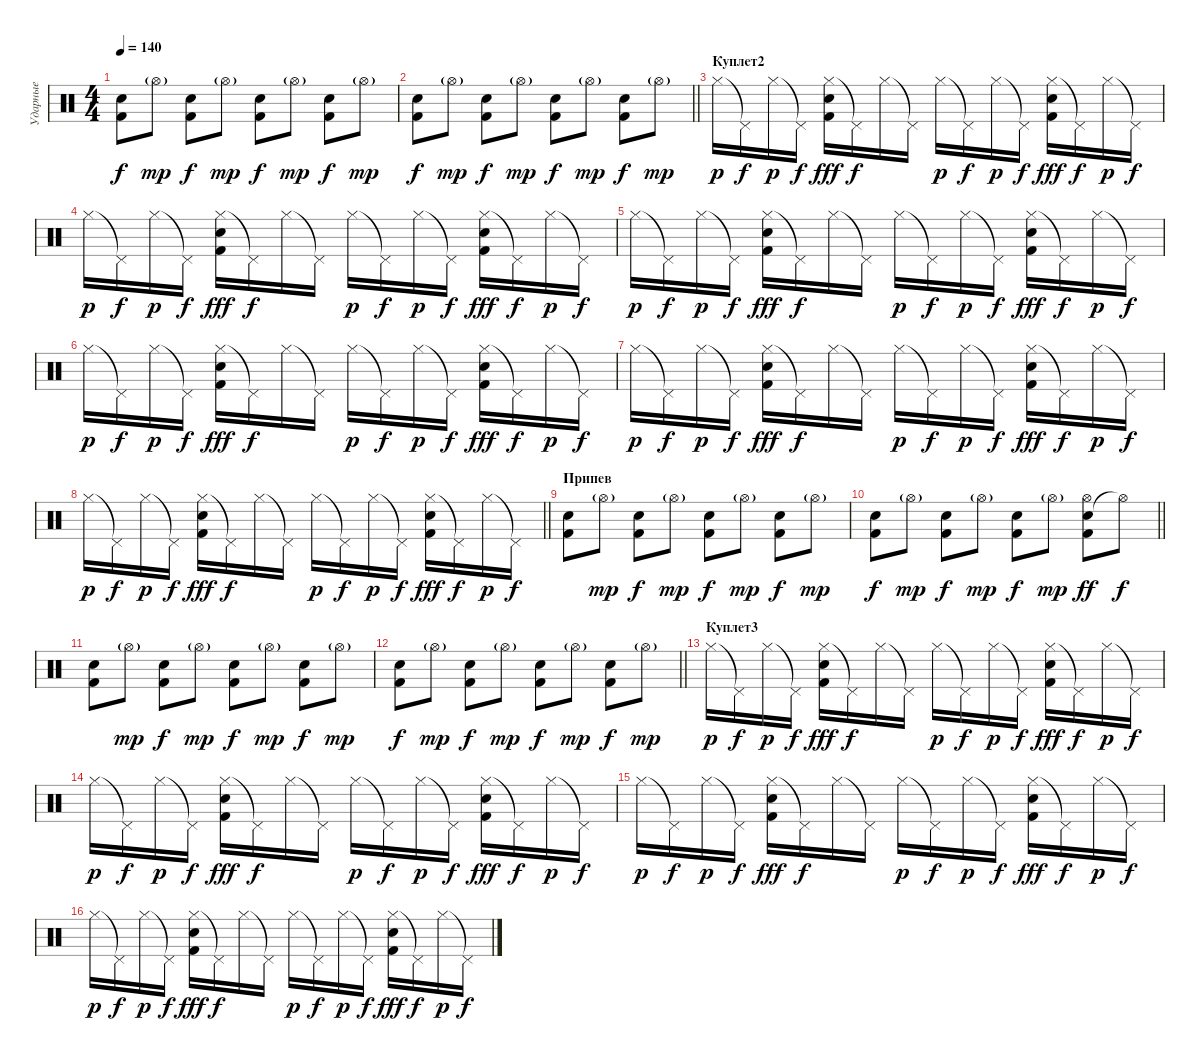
\track ("Ударные" "Ударные") {instrument percussion}
\staff {score}
\articulation defaults
\ts (4 4)
\tempo 140
\clef neutral
\ks c
("Snare (hit) 2" "Kick (hit) 2").8{dy f} "Hi-Hat (open)"{g}.8{dy mp} ("Snare (hit) 2" "Kick (hit) 2").8{dy f} "Hi-Hat (open)"{g}.8{dy mp} ("Snare (hit) 2" "Kick (hit) 2").8{dy f} "Hi-Hat (open)"{g}.8{dy mp} ("Snare (hit) 2" "Kick (hit) 2").8{dy f} "Hi-Hat (open)"{g}.8{dy mp} |
\barLineRight lightlight
("Snare (hit) 2" "Kick (hit) 2").8{dy f} "Hi-Hat (open)"{g}.8{dy mp} ("Snare (hit) 2" "Kick (hit) 2").8{dy f} "Hi-Hat (open)"{g}.8{dy mp} ("Snare (hit) 2" "Kick (hit) 2").8{dy f} "Hi-Hat (open)"{g}.8{dy mp} ("Snare (hit) 2" "Kick (hit) 2").8{dy f} "Hi-Hat (open)"{g}.8{dy mp} |
\section ("" "Куплет2")
"Hi-Hat (closed)".16{dy p} "Pedal Hi-Hat (hit)"{t}.16{dy f} "Hi-Hat (closed)".16{dy p} "Pedal Hi-Hat (hit)"{t}.16{dy f} ("Hi-Hat (closed)" "Electric Snare (hit)" "Kick (hit) 2").16{dy fff} "Pedal Hi-Hat (hit)"{t}.16{dy f} "Hi-Hat (closed)".16 "Pedal Hi-Hat (hit)"{t}.16 "Hi-Hat (closed)".16{dy p} "Pedal Hi-Hat (hit)"{t}.16{dy f} "Hi-Hat (closed)".16{dy p} "Pedal Hi-Hat (hit)"{t}.16{dy f} ("Hi-Hat (closed)" "Electric Snare (hit)" "Kick (hit) 2").16{dy fff} "Pedal Hi-Hat (hit)"{t}.16{dy f} "Hi-Hat (closed)".16{dy p} "Pedal Hi-Hat (hit)"{t}.16{dy f} |
"Hi-Hat (closed)".16{dy p} "Pedal Hi-Hat (hit)"{t}.16{dy f} "Hi-Hat (closed)".16{dy p} "Pedal Hi-Hat (hit)"{t}.16{dy f} ("Hi-Hat (closed)" "Electric Snare (hit)" "Kick (hit) 2").16{dy fff} "Pedal Hi-Hat (hit)"{t}.16{dy f} "Hi-Hat (closed)".16 "Pedal Hi-Hat (hit)"{t}.16 "Hi-Hat (closed)".16{dy p} "Pedal Hi-Hat (hit)"{t}.16{dy f} "Hi-Hat (closed)".16{dy p} "Pedal Hi-Hat (hit)"{t}.16{dy f} ("Hi-Hat (closed)" "Electric Snare (hit)" "Kick (hit) 2").16{dy fff} "Pedal Hi-Hat (hit)"{t}.16{dy f} "Hi-Hat (closed)".16{dy p} "Pedal Hi-Hat (hit)"{t}.16{dy f} |
"Hi-Hat (closed)".16{dy p} "Pedal Hi-Hat (hit)"{t}.16{dy f} "Hi-Hat (closed)".16{dy p} "Pedal Hi-Hat (hit)"{t}.16{dy f} ("Hi-Hat (closed)" "Electric Snare (hit)" "Kick (hit) 2").16{dy fff} "Pedal Hi-Hat (hit)"{t}.16{dy f} "Hi-Hat (closed)".16 "Pedal Hi-Hat (hit)"{t}.16 "Hi-Hat (closed)".16{dy p} "Pedal Hi-Hat (hit)"{t}.16{dy f} "Hi-Hat (closed)".16{dy p} "Pedal Hi-Hat (hit)"{t}.16{dy f} ("Hi-Hat (closed)" "Electric Snare (hit)" "Kick (hit) 2").16{dy fff} "Pedal Hi-Hat (hit)"{t}.16{dy f} "Hi-Hat (closed)".16{dy p} "Pedal Hi-Hat (hit)"{t}.16{dy f} |
"Hi-Hat (closed)".16{dy p} "Pedal Hi-Hat (hit)"{t}.16{dy f} "Hi-Hat (closed)".16{dy p} "Pedal Hi-Hat (hit)"{t}.16{dy f} ("Hi-Hat (closed)" "Electric Snare (hit)" "Kick (hit) 2").16{dy fff} "Pedal Hi-Hat (hit)"{t}.16{dy f} "Hi-Hat (closed)".16 "Pedal Hi-Hat (hit)"{t}.16 "Hi-Hat (closed)".16{dy p} "Pedal Hi-Hat (hit)"{t}.16{dy f} "Hi-Hat (closed)".16{dy p} "Pedal Hi-Hat (hit)"{t}.16{dy f} ("Hi-Hat (closed)" "Electric Snare (hit)" "Kick (hit) 2").16{dy fff} "Pedal Hi-Hat (hit)"{t}.16{dy f} "Hi-Hat (closed)".16{dy p} "Pedal Hi-Hat (hit)"{t}.16{dy f} |
"Hi-Hat (closed)".16{dy p} "Pedal Hi-Hat (hit)"{t}.16{dy f} "Hi-Hat (closed)".16{dy p} "Pedal Hi-Hat (hit)"{t}.16{dy f} ("Hi-Hat (closed)" "Electric Snare (hit)" "Kick (hit) 2").16{dy fff} "Pedal Hi-Hat (hit)"{t}.16{dy f} "Hi-Hat (closed)".16 "Pedal Hi-Hat (hit)"{t}.16 "Hi-Hat (closed)".16{dy p} "Pedal Hi-Hat (hit)"{t}.16{dy f} "Hi-Hat (closed)".16{dy p} "Pedal Hi-Hat (hit)"{t}.16{dy f} ("Hi-Hat (closed)" "Electric Snare (hit)" "Kick (hit) 2").16{dy fff} "Pedal Hi-Hat (hit)"{t}.16{dy f} "Hi-Hat (closed)".16{dy p} "Pedal Hi-Hat (hit)"{t}.16{dy f} |
\barLineRight lightlight "Hi-Hat (closed)".16{dy p} "Pedal Hi-Hat (hit)"{t}.16{dy f} "Hi-Hat (closed)".16{dy p} "Pedal Hi-Hat (hit)"{t}.16{dy f}
("Hi-Hat (closed)" "Electric Snare (hit)" "Kick (hit) 2").16{dy fff} "Pedal Hi-Hat (hit)"{t}.16{dy f} "Hi-Hat (closed)".16 "Pedal Hi-Hat (hit)"{t}.16 "Hi-Hat (closed)".16{dy p} "Pedal Hi-Hat (hit)"{t}.16{dy f} "Hi-Hat (closed)".16{dy p} "Pedal Hi-Hat (hit)"{t}.16{dy f} ("Hi-Hat (closed)" "Electric Snare (hit)" "Kick (hit) 2").16{dy fff} "Pedal Hi-Hat (hit)"{t}.16{dy f} "Hi-Hat (closed)".16{dy p} "Pedal Hi-Hat (hit)"{t}.16{dy f} |
\section ("" "Припев")
("Snare (hit) 2" "Kick (hit) 2").8 "Hi-Hat (open)"{g}.8{dy mp} ("Snare (hit) 2" "Kick (hit) 2").8{dy f} "Hi-Hat (open)"{g}.8{dy mp} ("Snare (hit) 2" "Kick (hit) 2").8{dy f} "Hi-Hat (open)"{g}.8{dy mp} ("Snare (hit) 2" "Kick (hit) 2").8{dy f} "Hi-Hat (open)"{g}.8{dy mp} |
\barLineRight lightlight
("Snare (hit) 2" "Kick (hit) 2").8{dy f} "Hi-Hat (open)"{g}.8{dy mp} ("Snare (hit) 2" "Kick (hit) 2").8{dy f} "Hi-Hat (open)"{g}.8{dy mp} ("Snare (hit) 2" "Kick (hit) 2").8{dy f} "Hi-Hat (open)"{g}.8{dy mp} ("Snare (hit) 2" "Hi-Hat (open)" "Kick (hit) 2").8{dy ff} "Hi-Hat (open)"{t}.8{dy f} |
("Snare (hit) 2" "Kick (hit) 2").8 "Hi-Hat (open)"{g}.8{dy mp} ("Snare (hit) 2" "Kick (hit) 2").8{dy f} "Hi-Hat (open)"{g}.8{dy mp} ("Snare (hit) 2" "Kick (hit) 2").8{dy f} "Hi-Hat (open)"{g}.8{dy mp} ("Snare (hit) 2" "Kick (hit) 2").8{dy f} "Hi-Hat (open)"{g}.8{dy mp} |
\barLineRight lightlight
("Snare (hit) 2" "Kick (hit) 2").8{dy f} "Hi-Hat (open)"{g}.8{dy mp} ("Snare (hit) 2" "Kick (hit) 2").8{dy f} "Hi-Hat (open)"{g}.8{dy mp} ("Snare (hit) 2" "Kick (hit) 2").8{dy f} "Hi-Hat (open)"{g}.8{dy mp} ("Snare (hit) 2" "Kick (hit) 2").8{dy f} "Hi-Hat (open)"{g}.8{dy mp} |
\section ("" "Куплет3")
"Hi-Hat (closed)".16{dy p} "Pedal Hi-Hat (hit)"{t}.16{dy f} "Hi-Hat (closed)".16{dy p} "Pedal Hi-Hat (hit)"{t}.16{dy f} ("Hi-Hat (closed)" "Electric Snare (hit)" "Kick (hit) 2").16{dy fff} "Pedal Hi-Hat (hit)"{t}.16{dy f} "Hi-Hat (closed)".16 "Pedal Hi-Hat (hit)"{t}.16 "Hi-Hat (closed)".16{dy p} "Pedal Hi-Hat (hit)"{t}.16{dy f} "Hi-Hat (closed)".16{dy p} "Pedal Hi-Hat (hit)"{t}.16{dy f} ("Hi-Hat (closed)" "Electric Snare (hit)" "Kick (hit) 2").16{dy fff} "Pedal Hi-Hat (hit)"{t}.16{dy f} "Hi-Hat (closed)".16{dy p} "Pedal Hi-Hat (hit)"{t}.16{dy f} |
"Hi-Hat (closed)".16{dy p} "Pedal Hi-Hat (hit)"{t}.16{dy f} "Hi-Hat (closed)".16{dy p} "Pedal Hi-Hat (hit)"{t}.16{dy f} ("Hi-Hat (closed)" "Electric Snare (hit)" "Kick (hit) 2").16{dy fff} "Pedal Hi-Hat (hit)"{t}.16{dy f} "Hi-Hat (closed)".16 "Pedal Hi-Hat (hit)"{t}.16 "Hi-Hat (closed)".16{dy p} "Pedal Hi-Hat (hit)"{t}.16{dy f} "Hi-Hat (closed)".16{dy p} "Pedal Hi-Hat (hit)"{t}.16{dy f} ("Hi-Hat (closed)" "Electric Snare (hit)" "Kick (hit) 2").16{dy fff} "Pedal Hi-Hat (hit)"{t}.16{dy f} "Hi-Hat (closed)".16{dy p} "Pedal Hi-Hat (hit)"{t}.16{dy f} |
"Hi-Hat (closed)".16{dy p} "Pedal Hi-Hat (hit)"{t}.16{dy f} "Hi-Hat (closed)".16{dy p} "Pedal Hi-Hat (hit)"{t}.16{dy f} ("Hi-Hat (closed)" "Electric Snare (hit)" "Kick (hit) 2").16{dy fff} "Pedal Hi-Hat (hit)"{t}.16{dy f} "Hi-Hat (closed)".16 "Pedal Hi-Hat (hit)"{t}.16 "Hi-Hat (closed)".16{dy p} "Pedal Hi-Hat (hit)"{t}.16{dy f} "Hi-Hat (closed)".16{dy p} "Pedal Hi-Hat (hit)"{t}.16{dy f} ("Hi-Hat (closed)" "Electric Snare (hit)" "Kick (hit) 2").16{dy fff} "Pedal Hi-Hat (hit)"{t}.16{dy f} "Hi-Hat (closed)".16{dy p} "Pedal Hi-Hat (hit)"{t}.16{dy f} |
"Hi-Hat (closed)".16{dy p} "Pedal Hi-Hat (hit)"{t}.16{dy f} "Hi-Hat (closed)".16{dy p} "Pedal Hi-Hat (hit)"{t}.16{dy f} ("Hi-Hat (closed)" "Electric Snare (hit)" "Kick (hit) 2").16{dy fff} "Pedal Hi-Hat (hit)"{t}.16{dy f} "Hi-Hat (closed)".16 "Pedal Hi-Hat (hit)"{t}.16 "Hi-Hat (closed)".16{dy p} "Pedal Hi-Hat (hit)"{t}.16{dy f} "Hi-Hat (closed)".16{dy p} "Pedal Hi-Hat (hit)"{t}.16{dy f} ("Hi-Hat (closed)" "Electric Snare (hit)" "Kick (hit) 2").16{dy fff} "Pedal Hi-Hat (hit)"{t}.16{dy f} "Hi-Hat (closed)".16{dy p} "Pedal Hi-Hat (hit)"{t}.16{dy f}
